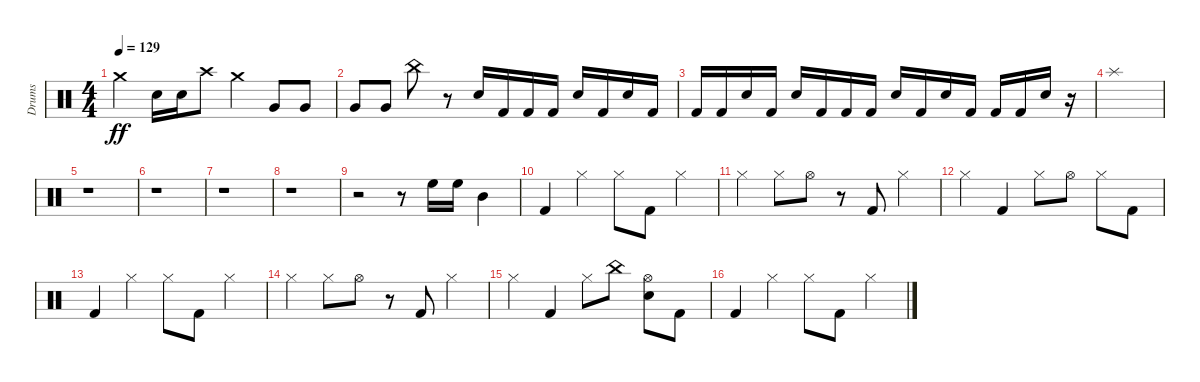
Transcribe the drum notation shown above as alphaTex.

\track ("Drums" "Drums") {instrument percussion}
\staff {score}
\articulation defaults
\ts (4 4)
\tempo 129
\clef neutral
\ks c "Crash medium (hit)".4{dy ff} "Electric Snare (hit)".16 "Electric Snare (hit)".16 "Crash high (hit)".8 "Crash medium (hit)".4 "Very Low Tom (hit)".8 "Very Low Tom (hit)".8
|
"Very Low Tom (hit)".8 "Very Low Tom (hit)".8 "China (hit)".8 r.8 "Electric Snare (hit)".16 "Kick (hit) 2".16 "Kick (hit) 2".16 "Kick (hit) 2".16 "Electric Snare (hit)".16 "Kick (hit) 2".16 "Electric Snare (hit)".16 "Kick (hit) 2".16 |
"Kick (hit) 2".16 "Kick (hit) 2".16 "Electric Snare (hit)".16 "Kick (hit) 2".16 "Electric Snare (hit)".16 "Kick (hit) 2".16 "Kick (hit) 2".16 "Kick (hit) 2".16 "Electric Snare (hit)".16 "Kick (hit) 2".16 "Electric Snare (hit)".16 "Kick (hit) 2".16 "Kick (hit) 2".16 "Kick (hit) 2".16 "Electric Snare (hit)".16 r.16 |
"Splash (hit)".1 |
r.1 |
r.1 |
r.1 |
r.1 |
r.2 r.8 "High Floor Tom (hit)".16 "High Floor Tom (hit)".16 "Mid Tom (hit)".4 |
"Kick (hit) 2".4 "Hi-Hat (closed)".4 "Hi-Hat (closed)".8 "Kick (hit) 2".8 "Hi-Hat (closed)".4 |
"Hi-Hat (closed)".4 "Hi-Hat (closed)".8 "Hi-Hat (open)".8 r.8 "Kick (hit) 2".8 "Hi-Hat (closed)".4 |
"Hi-Hat (closed)".4 "Kick (hit) 2".4 "Hi-Hat (closed)".8 "Hi-Hat (open)".8 "Hi-Hat (closed)".8 "Kick (hit) 2".8 |
"Kick (hit) 2".4 "Hi-Hat (closed)".4 "Hi-Hat (closed)".8 "Kick (hit) 2".8 "Hi-Hat (closed)".4 |
"Hi-Hat (closed)".4 "Hi-Hat (closed)".8 "Hi-Hat (open)".8 r.8 "Kick (hit) 2".8 "Hi-Hat (closed)".4 |
"Hi-Hat (closed)".4 "Kick (hit) 2".4 "Hi-Hat (closed)".8 "China (hit)".8 ("Electric Snare (hit)" "Hi-Hat (open)").8 "Kick (hit) 2".8 |
"Kick (hit) 2".4 "Hi-Hat (closed)".4 "Hi-Hat (closed)".8 "Kick (hit) 2".8 "Hi-Hat (closed)".4
